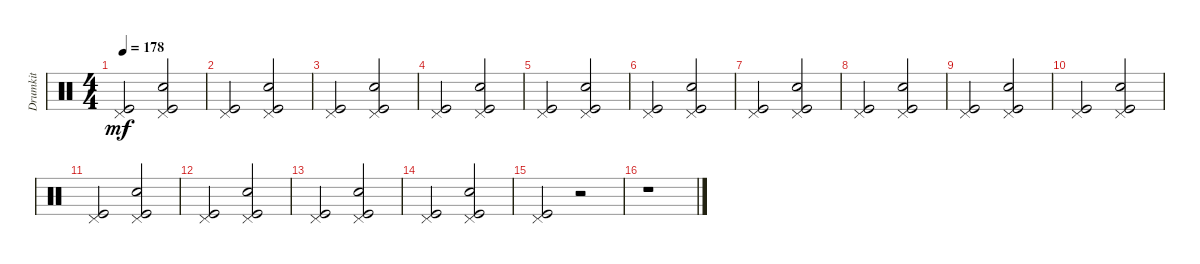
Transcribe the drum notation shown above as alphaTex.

\track ("Drumkit" "Drumkit") {instrument percussion}
\staff {score}
\articulation defaults
\ts (4 4)
\tempo 178
\clef neutral
\ks c
("Kick (hit)" "Pedal Hi-Hat (hit)").2{dy mf} ("Kick (hit)" "Pedal Hi-Hat (hit)" "Snare (hit) 2").2 |
("Kick (hit)" "Pedal Hi-Hat (hit)").2 ("Kick (hit)" "Pedal Hi-Hat (hit)" "Snare (hit) 2").2 |
("Kick (hit)" "Pedal Hi-Hat (hit)").2 ("Kick (hit)" "Pedal Hi-Hat (hit)" "Snare (hit) 2").2 |
("Kick (hit)" "Pedal Hi-Hat (hit)").2 ("Kick (hit)" "Pedal Hi-Hat (hit)" "Snare (hit) 2").2 |
("Kick (hit)" "Pedal Hi-Hat (hit)").2 ("Kick (hit)" "Pedal Hi-Hat (hit)" "Snare (hit) 2").2 |
("Kick (hit)" "Pedal Hi-Hat (hit)").2 ("Kick (hit)" "Pedal Hi-Hat (hit)" "Snare (hit) 2").2 |
("Kick (hit)" "Pedal Hi-Hat (hit)").2 ("Kick (hit)" "Pedal Hi-Hat (hit)" "Snare (hit) 2").2 |
("Kick (hit)" "Pedal Hi-Hat (hit)").2 ("Kick (hit)" "Pedal Hi-Hat (hit)" "Snare (hit) 2").2 |
("Kick (hit)" "Pedal Hi-Hat (hit)").2 ("Kick (hit)" "Pedal Hi-Hat (hit)" "Snare (hit) 2").2 |
("Kick (hit)" "Pedal Hi-Hat (hit)").2 ("Kick (hit)" "Pedal Hi-Hat (hit)" "Snare (hit) 2").2 |
("Kick (hit)" "Pedal Hi-Hat (hit)").2 ("Kick (hit)" "Pedal Hi-Hat (hit)" "Snare (hit) 2").2 |
("Kick (hit)" "Pedal Hi-Hat (hit)").2 ("Kick (hit)" "Pedal Hi-Hat (hit)" "Snare (hit) 2").2 |
("Kick (hit)" "Pedal Hi-Hat (hit)").2 ("Kick (hit)" "Pedal Hi-Hat (hit)" "Snare (hit) 2").2 |
("Kick (hit)" "Pedal Hi-Hat (hit)").2 ("Kick (hit)" "Pedal Hi-Hat (hit)" "Snare (hit) 2").2 |
("Kick (hit)" "Pedal Hi-Hat (hit)").2 r.2 |
r.1
